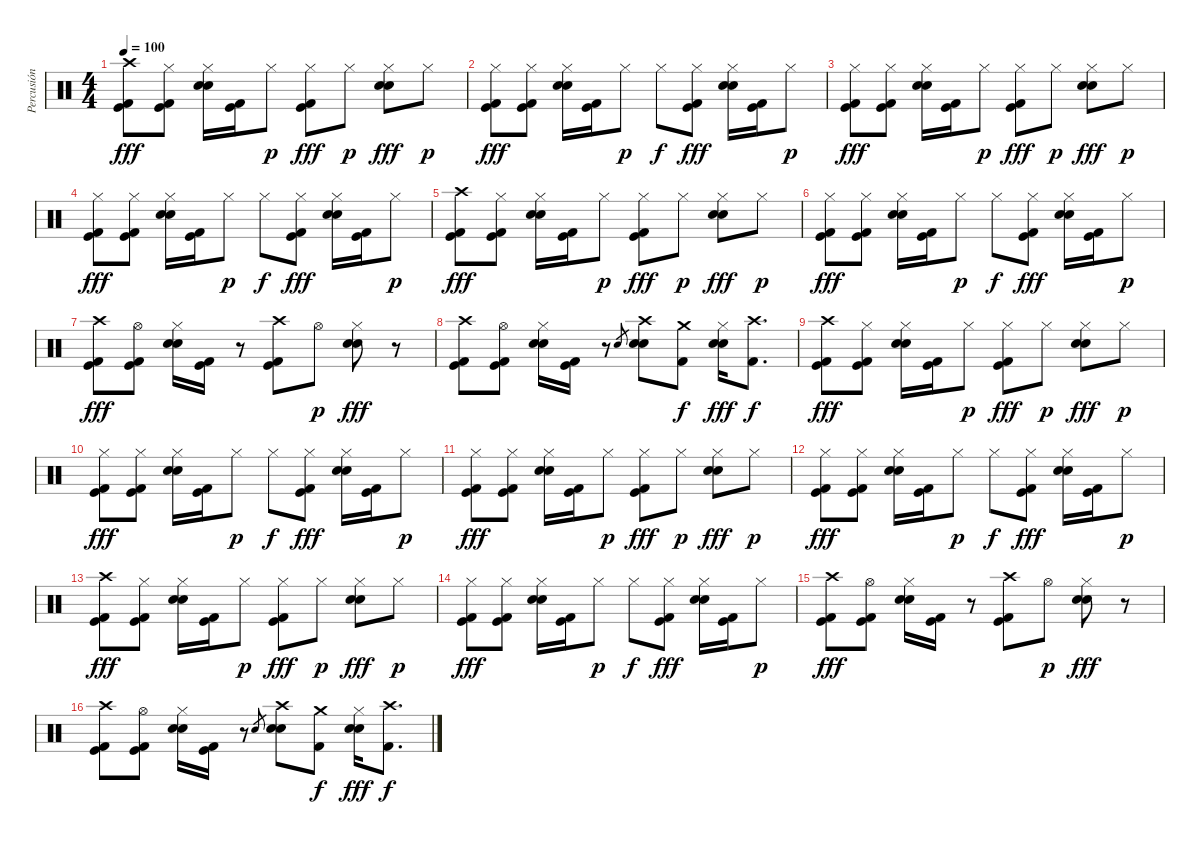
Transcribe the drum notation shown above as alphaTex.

\track ("Percusión" "Percusión") {instrument percussion}
\staff {score}
\articulation defaults
\ts (4 4)
\tempo 100
\clef neutral
\ks c
("Crash high (hit)" "Kick (hit)" "Kick (hit) 2").8{dy fff} ("Hi-Hat (closed)" "Kick (hit)" "Kick (hit) 2").8 ("Hi-Hat (closed)" "Snare (hit) 2" "Electric Snare (hit)").16 ("Kick (hit)" "Kick (hit) 2").16 "Hi-Hat (closed)".8{dy p} ("Hi-Hat (closed)" "Kick (hit)" "Kick (hit) 2").8{dy fff} "Hi-Hat (closed)".8{dy p} ("Hi-Hat (closed)" "Snare (hit) 2" "Electric Snare (hit)").8{dy fff} "Hi-Hat (closed)".8{dy p} |
("Hi-Hat (closed)" "Kick (hit)" "Kick (hit) 2").8{dy fff} ("Hi-Hat (closed)" "Kick (hit)" "Kick (hit) 2").8 ("Hi-Hat (closed)" "Snare (hit) 2" "Electric Snare (hit)").16 ("Kick (hit)" "Kick (hit) 2").16 "Hi-Hat (closed)".8{dy p} "Hi-Hat (closed)".8{dy f} ("Hi-Hat (closed)" "Kick (hit)" "Kick (hit) 2").8{dy fff} ("Hi-Hat (closed)" "Snare (hit) 2" "Electric Snare (hit)").16 ("Kick (hit)" "Kick (hit) 2").16 "Hi-Hat (closed)".8{dy p} |
("Hi-Hat (closed)" "Kick (hit)" "Kick (hit) 2").8{dy fff} ("Hi-Hat (closed)" "Kick (hit)" "Kick (hit) 2").8 ("Hi-Hat (closed)" "Snare (hit) 2" "Electric Snare (hit)").16 ("Kick (hit)" "Kick (hit) 2").16 "Hi-Hat (closed)".8{dy p} ("Hi-Hat (closed)" "Kick (hit)" "Kick (hit) 2").8{dy fff} "Hi-Hat (closed)".8{dy p} ("Hi-Hat (closed)" "Snare (hit) 2" "Electric Snare (hit)").8{dy fff} "Hi-Hat (closed)".8{dy p} |
("Hi-Hat (closed)" "Kick (hit)" "Kick (hit) 2").8{dy fff} ("Hi-Hat (closed)" "Kick (hit)" "Kick (hit) 2").8 ("Hi-Hat (closed)" "Snare (hit) 2" "Electric Snare (hit)").16 ("Kick (hit)" "Kick (hit) 2").16 "Hi-Hat (closed)".8{dy p} "Hi-Hat (closed)".8{dy f} ("Hi-Hat (closed)" "Kick (hit)" "Kick (hit) 2").8{dy fff} ("Hi-Hat (closed)" "Snare (hit) 2" "Electric Snare (hit)").16 ("Kick (hit)" "Kick (hit) 2").16 "Hi-Hat (closed)".8{dy p} |
("Crash high (hit)" "Kick (hit)" "Kick (hit) 2").8{dy fff} ("Hi-Hat (closed)" "Kick (hit)" "Kick (hit) 2").8 ("Hi-Hat (closed)" "Snare (hit) 2" "Electric Snare (hit)").16 ("Kick (hit)" "Kick (hit) 2").16 "Hi-Hat (closed)".8{dy p} ("Hi-Hat (closed)" "Kick (hit)" "Kick (hit) 2").8{dy fff} "Hi-Hat (closed)".8{dy p} ("Hi-Hat (closed)" "Snare (hit) 2" "Electric Snare (hit)").8{dy fff} "Hi-Hat (closed)".8{dy p} |
("Hi-Hat (closed)" "Kick (hit)" "Kick (hit) 2").8{dy fff} ("Hi-Hat (closed)" "Kick (hit)" "Kick (hit) 2").8 ("Hi-Hat (closed)" "Snare (hit) 2" "Electric Snare (hit)").16 ("Kick (hit)" "Kick (hit) 2").16 "Hi-Hat (closed)".8{dy p} "Hi-Hat (closed)".8{dy f} ("Hi-Hat (closed)" "Kick (hit)" "Kick (hit) 2").8{dy fff} ("Hi-Hat (closed)" "Snare (hit) 2" "Electric Snare (hit)").16 ("Kick (hit)" "Kick (hit) 2").16 "Hi-Hat (closed)".8{dy p} |
("Crash high (hit)" "Kick (hit)" "Kick (hit) 2").8{dy fff} ("Hi-Hat (open)" "Kick (hit)" "Kick (hit) 2").8 ("Hi-Hat (closed)" "Snare (hit) 2" "Electric Snare (hit)").16 ("Kick (hit)" "Kick (hit) 2").16 r.8 ("Crash high (hit)" "Kick (hit)" "Kick (hit) 2").8 "Hi-Hat (open)".8{dy p} ("Hi-Hat (closed)" "Snare (hit) 2" "Electric Snare (hit)").8{dy fff} r.8 |
("Crash high (hit)" "Kick (hit)" "Kick (hit) 2").8 ("Hi-Hat (open)" "Kick (hit)" "Kick (hit) 2").8 ("Hi-Hat (closed)" "Snare (hit) 2" "Electric Snare (hit)").16 ("Kick (hit)" "Kick (hit) 2").16 r.8 "Snare (hit) 2".8{gr} ("Crash high (hit)" "Snare (hit) 2" "Electric Snare (hit)").8 ("Crash medium (hit)" "Kick (hit) 2").8{dy f} ("Hi-Hat (closed)" "Snare (hit) 2" "Electric Snare (hit)").16{dy fff} ("Crash high (hit)" "Kick (hit) 2").8{d dy f} |
("Crash high (hit)" "Kick (hit)" "Kick (hit) 2").8{dy fff} ("Hi-Hat (closed)" "Kick (hit)" "Kick (hit) 2").8 ("Hi-Hat (closed)" "Snare (hit) 2" "Electric Snare (hit)").16 ("Kick (hit)" "Kick (hit) 2").16 "Hi-Hat (closed)".8{dy p} ("Hi-Hat (closed)" "Kick (hit)" "Kick (hit) 2").8{dy fff} "Hi-Hat (closed)".8{dy p} ("Hi-Hat (closed)" "Snare (hit) 2" "Electric Snare (hit)").8{dy fff} "Hi-Hat (closed)".8{dy p} |
("Hi-Hat (closed)" "Kick (hit)" "Kick (hit) 2").8{dy fff} ("Hi-Hat (closed)" "Kick (hit)" "Kick (hit) 2").8 ("Hi-Hat (closed)" "Snare (hit) 2" "Electric Snare (hit)").16 ("Kick (hit)" "Kick (hit) 2").16 "Hi-Hat (closed)".8{dy p} "Hi-Hat (closed)".8{dy f} ("Hi-Hat (closed)" "Kick (hit)" "Kick (hit) 2").8{dy fff} ("Hi-Hat (closed)" "Snare (hit) 2" "Electric Snare (hit)").16 ("Kick (hit)" "Kick (hit) 2").16 "Hi-Hat (closed)".8{dy p} |
("Hi-Hat (closed)" "Kick (hit)" "Kick (hit) 2").8{dy fff} ("Hi-Hat (closed)" "Kick (hit)" "Kick (hit) 2").8 ("Hi-Hat (closed)" "Snare (hit) 2" "Electric Snare (hit)").16 ("Kick (hit)" "Kick (hit) 2").16 "Hi-Hat (closed)".8{dy p} ("Hi-Hat (closed)" "Kick (hit)" "Kick (hit) 2").8{dy fff} "Hi-Hat (closed)".8{dy p} ("Hi-Hat (closed)" "Snare (hit) 2" "Electric Snare (hit)").8{dy fff} "Hi-Hat (closed)".8{dy p} |
("Hi-Hat (closed)" "Kick (hit)" "Kick (hit) 2").8{dy fff} ("Hi-Hat (closed)" "Kick (hit)" "Kick (hit) 2").8 ("Hi-Hat (closed)" "Snare (hit) 2" "Electric Snare (hit)").16 ("Kick (hit)" "Kick (hit) 2").16 "Hi-Hat (closed)".8{dy p} "Hi-Hat (closed)".8{dy f} ("Hi-Hat (closed)" "Kick (hit)" "Kick (hit) 2").8{dy fff} ("Hi-Hat (closed)" "Snare (hit) 2" "Electric Snare (hit)").16 ("Kick (hit)" "Kick (hit) 2").16 "Hi-Hat (closed)".8{dy p} |
("Crash high (hit)" "Kick (hit)" "Kick (hit) 2").8{dy fff} ("Hi-Hat (closed)" "Kick (hit)" "Kick (hit) 2").8 ("Hi-Hat (closed)" "Snare (hit) 2" "Electric Snare (hit)").16 ("Kick (hit)" "Kick (hit) 2").16 "Hi-Hat (closed)".8{dy p} ("Hi-Hat (closed)" "Kick (hit)" "Kick (hit) 2").8{dy fff} "Hi-Hat (closed)".8{dy p} ("Hi-Hat (closed)" "Snare (hit) 2" "Electric Snare (hit)").8{dy fff} "Hi-Hat (closed)".8{dy p} |
("Hi-Hat (closed)" "Kick (hit)" "Kick (hit) 2").8{dy fff} ("Hi-Hat (closed)" "Kick (hit)" "Kick (hit) 2").8 ("Hi-Hat (closed)" "Snare (hit) 2" "Electric Snare (hit)").16 ("Kick (hit)" "Kick (hit) 2").16 "Hi-Hat (closed)".8{dy p} "Hi-Hat (closed)".8{dy f} ("Hi-Hat (closed)" "Kick (hit)" "Kick (hit) 2").8{dy fff} ("Hi-Hat (closed)" "Snare (hit) 2" "Electric Snare (hit)").16 ("Kick (hit)" "Kick (hit) 2").16 "Hi-Hat (closed)".8{dy p} |
("Crash high (hit)" "Kick (hit)" "Kick (hit) 2").8{dy fff} ("Hi-Hat (open)" "Kick (hit)" "Kick (hit) 2").8 ("Hi-Hat (closed)" "Snare (hit) 2" "Electric Snare (hit)").16 ("Kick (hit)" "Kick (hit) 2").16 r.8 ("Crash high (hit)" "Kick (hit)" "Kick (hit) 2").8 "Hi-Hat (open)".8{dy p} ("Hi-Hat (closed)" "Snare (hit) 2" "Electric Snare (hit)").8{dy fff} r.8 |
("Crash high (hit)" "Kick (hit)" "Kick (hit) 2").8 ("Hi-Hat (open)" "Kick (hit)" "Kick (hit) 2").8 ("Hi-Hat (closed)" "Snare (hit) 2" "Electric Snare (hit)").16 ("Kick (hit)" "Kick (hit) 2").16 r.8 "Snare (hit) 2".8{gr} ("Crash high (hit)" "Snare (hit) 2" "Electric Snare (hit)").8 ("Crash medium (hit)" "Kick (hit) 2").8{dy f} ("Hi-Hat (closed)" "Snare (hit) 2" "Electric Snare (hit)").16{dy fff} ("Crash high (hit)" "Kick (hit) 2").8{d dy f}
